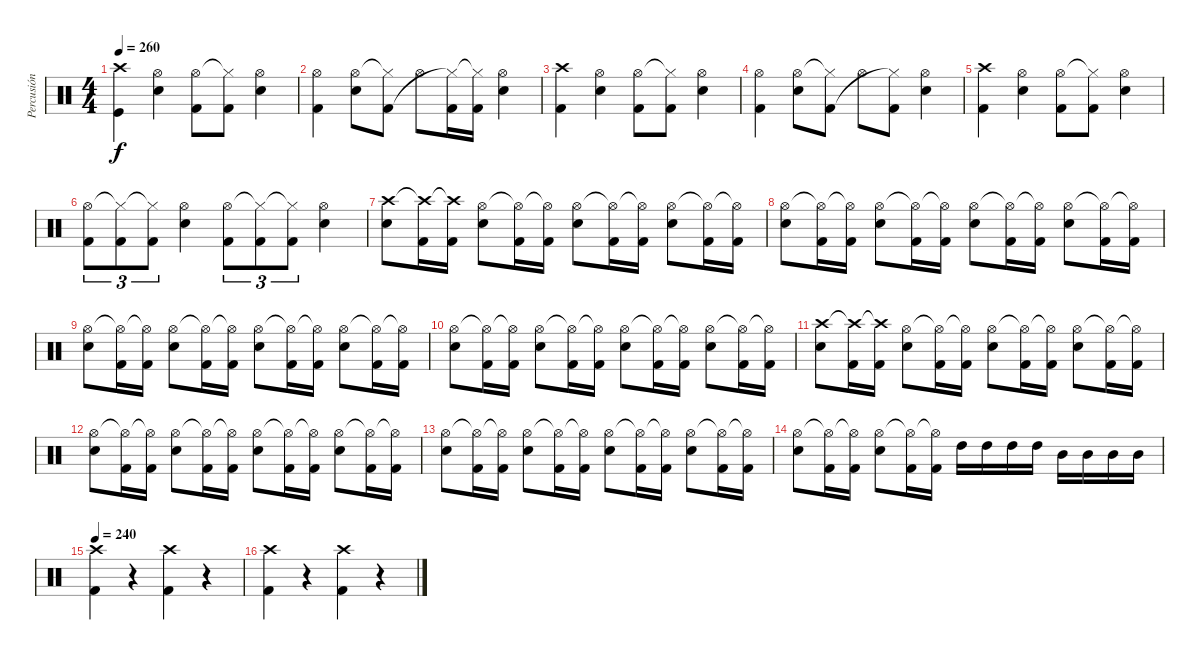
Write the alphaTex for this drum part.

\track ("Percusión" "Percusión") {instrument percussion}
\staff {score}
\articulation defaults
\ts (4 4)
\tempo 260
\clef neutral
\ks c
("Crash high (hit)" "Kick (hit)").4{dy f} ("Hi-Hat (open)" "Snare (hit) 2").4 ("Kick (hit) 2" "Hi-Hat (open)").8 ("Kick (hit) 2" "Hi-Hat (closed)"{t}).8 ("Snare (hit) 2" "Hi-Hat (open)").4 |
("Hi-Hat (open)" "Kick (hit) 2").4 ("Hi-Hat (open)" "Snare (hit) 2").8 ("Hi-Hat (closed)"{t} "Kick (hit) 2").8 "Hi-Hat (open)".8 ("Kick (hit) 2" "Hi-Hat (closed)"{t}).16 ("Kick (hit) 2" "Hi-Hat (closed)"{t}).16 ("Hi-Hat (open)" "Snare (hit) 2").4 |
("Crash high (hit)" "Kick (hit) 2").4 ("Hi-Hat (open)" "Snare (hit) 2").4 ("Kick (hit) 2" "Hi-Hat (open)").8 ("Kick (hit) 2" "Hi-Hat (closed)"{t}).8 ("Snare (hit) 2" "Hi-Hat (open)").4 |
("Hi-Hat (open)" "Kick (hit) 2").4 ("Hi-Hat (open)" "Snare (hit) 2").8 ("Hi-Hat (closed)"{t} "Kick (hit) 2").8 "Hi-Hat (open)".8 ("Kick (hit) 2" "Hi-Hat (closed)"{t}).8 ("Hi-Hat (open)" "Snare (hit) 2").4 |
("Crash high (hit)" "Kick (hit) 2").4 ("Hi-Hat (open)" "Snare (hit) 2").4 ("Kick (hit) 2" "Hi-Hat (open)").8 ("Kick (hit) 2" "Hi-Hat (closed)"{t}).8 ("Snare (hit) 2" "Hi-Hat (open)").4 |
("Kick (hit) 2" "Hi-Hat (open)").8{tu (3 2)} ("Kick (hit) 2" "Hi-Hat (closed)"{t}).8{tu (3 2)} ("Kick (hit) 2" "Hi-Hat (closed)"{t}).8{tu (3 2)} ("Snare (hit) 2" "Hi-Hat (open)").4 ("Kick (hit) 2" "Hi-Hat (open)").8{tu (3 2)} ("Kick (hit) 2" "Hi-Hat (closed)"{t}).8{tu (3 2)} ("Kick (hit) 2" "Hi-Hat (closed)"{t}).8{tu (3 2)} ("Snare (hit) 2" "Hi-Hat (open)").4 |
("Snare (hit) 2" "Crash high (hit)").8 ("Kick (hit) 2" "Crash high (hit)"{t}).16 ("Kick (hit) 2" "Crash high (hit)"{t}).16 ("Snare (hit) 2" "Hi-Hat (open)").8 ("Kick (hit) 2" "Hi-Hat (open)"{t}).16 ("Kick (hit) 2" "Hi-Hat (open)"{t}).16 ("Snare (hit) 2" "Hi-Hat (open)").8 ("Kick (hit) 2" "Hi-Hat (open)"{t}).16 ("Kick (hit) 2" "Hi-Hat (open)"{t}).16 ("Snare (hit) 2" "Hi-Hat (open)").8 ("Kick (hit) 2" "Hi-Hat (open)"{t}).16 ("Kick (hit) 2" "Hi-Hat (open)"{t}).16 |
("Snare (hit) 2" "Hi-Hat (open)").8 ("Kick (hit) 2" "Hi-Hat (open)"{t}).16 ("Kick (hit) 2" "Hi-Hat (open)"{t}).16 ("Snare (hit) 2" "Hi-Hat (open)").8 ("Kick (hit) 2" "Hi-Hat (open)"{t}).16 ("Kick (hit) 2" "Hi-Hat (open)"{t}).16 ("Snare (hit) 2" "Hi-Hat (open)").8 ("Kick (hit) 2" "Hi-Hat (open)"{t}).16 ("Kick (hit) 2" "Hi-Hat (open)"{t}).16 ("Snare (hit) 2" "Hi-Hat (open)").8 ("Kick (hit) 2" "Hi-Hat (open)"{t}).16 ("Kick (hit) 2" "Hi-Hat (open)"{t}).16 |
("Snare (hit) 2" "Hi-Hat (open)").8 ("Kick (hit) 2" "Hi-Hat (open)"{t}).16 ("Kick (hit) 2" "Hi-Hat (open)"{t}).16 ("Snare (hit) 2" "Hi-Hat (open)").8 ("Kick (hit) 2" "Hi-Hat (open)"{t}).16 ("Kick (hit) 2" "Hi-Hat (open)"{t}).16 ("Snare (hit) 2" "Hi-Hat (open)").8 ("Kick (hit) 2" "Hi-Hat (open)"{t}).16 ("Kick (hit) 2" "Hi-Hat (open)"{t}).16 ("Snare (hit) 2" "Hi-Hat (open)").8 ("Kick (hit) 2" "Hi-Hat (open)"{t}).16 ("Kick (hit) 2" "Hi-Hat (open)"{t}).16 |
("Snare (hit) 2" "Hi-Hat (open)").8 ("Kick (hit) 2" "Hi-Hat (open)"{t}).16 ("Kick (hit) 2" "Hi-Hat (open)"{t}).16 ("Snare (hit) 2" "Hi-Hat (open)").8 ("Kick (hit) 2" "Hi-Hat (open)"{t}).16 ("Kick (hit) 2" "Hi-Hat (open)"{t}).16 ("Snare (hit) 2" "Hi-Hat (open)").8 ("Kick (hit) 2" "Hi-Hat (open)"{t}).16 ("Kick (hit) 2" "Hi-Hat (open)"{t}).16 ("Snare (hit) 2" "Hi-Hat (open)").8 ("Kick (hit) 2" "Hi-Hat (open)"{t}).16 ("Kick (hit) 2" "Hi-Hat (open)"{t}).16 |
("Snare (hit) 2" "Crash high (hit)").8 ("Kick (hit) 2" "Crash high (hit)"{t}).16 ("Kick (hit) 2" "Crash high (hit)"{t}).16 ("Snare (hit) 2" "Hi-Hat (open)").8 ("Kick (hit) 2" "Hi-Hat (open)"{t}).16 ("Kick (hit) 2" "Hi-Hat (open)"{t}).16 ("Snare (hit) 2" "Hi-Hat (open)").8 ("Kick (hit) 2" "Hi-Hat (open)"{t}).16 ("Kick (hit) 2" "Hi-Hat (open)"{t}).16 ("Snare (hit) 2" "Hi-Hat (open)").8 ("Kick (hit) 2" "Hi-Hat (open)"{t}).16 ("Kick (hit) 2" "Hi-Hat (open)"{t}).16 |
("Snare (hit) 2" "Hi-Hat (open)").8 ("Kick (hit) 2" "Hi-Hat (open)"{t}).16 ("Kick (hit) 2" "Hi-Hat (open)"{t}).16 ("Snare (hit) 2" "Hi-Hat (open)").8 ("Kick (hit) 2" "Hi-Hat (open)"{t}).16 ("Kick (hit) 2" "Hi-Hat (open)"{t}).16 ("Snare (hit) 2" "Hi-Hat (open)").8 ("Kick (hit) 2" "Hi-Hat (open)"{t}).16 ("Kick (hit) 2" "Hi-Hat (open)"{t}).16 ("Snare (hit) 2" "Hi-Hat (open)").8 ("Kick (hit) 2" "Hi-Hat (open)"{t}).16 ("Kick (hit) 2" "Hi-Hat (open)"{t}).16 |
("Snare (hit) 2" "Hi-Hat (open)").8 ("Kick (hit) 2" "Hi-Hat (open)"{t}).16 ("Kick (hit) 2" "Hi-Hat (open)"{t}).16 ("Snare (hit) 2" "Hi-Hat (open)").8 ("Kick (hit) 2" "Hi-Hat (open)"{t}).16 ("Kick (hit) 2" "Hi-Hat (open)"{t}).16 ("Snare (hit) 2" "Hi-Hat (open)").8 ("Kick (hit) 2" "Hi-Hat (open)"{t}).16 ("Kick (hit) 2" "Hi-Hat (open)"{t}).16 ("Snare (hit) 2" "Hi-Hat (open)").8 ("Kick (hit) 2" "Hi-Hat (open)"{t}).16 ("Kick (hit) 2" "Hi-Hat (open)"{t}).16 |
("Snare (hit) 2" "Hi-Hat (open)").8 ("Kick (hit) 2" "Hi-Hat (open)"{t}).16 ("Kick (hit) 2" "Hi-Hat (open)"{t}).16 ("Snare (hit) 2" "Hi-Hat (open)").8 ("Kick (hit) 2" "Hi-Hat (open)"{t}).16 ("Kick (hit) 2" "Hi-Hat (open)"{t}).16 "High Tom (hit)".16 "High Tom (hit)".16 "High Tom (hit)".16 "High Tom (hit)".16 "Mid Tom (hit)".16 "Mid Tom (hit)".16 "Mid Tom (hit)".16 "Mid Tom (hit)".16 |
\tempo 240
("Kick (hit) 2" "Crash high (hit)").4 r.4 ("Kick (hit) 2" "Crash high (hit)").4 r.4 |
("Kick (hit) 2" "Crash high (hit)").4 r.4 ("Kick (hit) 2" "Crash high (hit)").4 r.4
